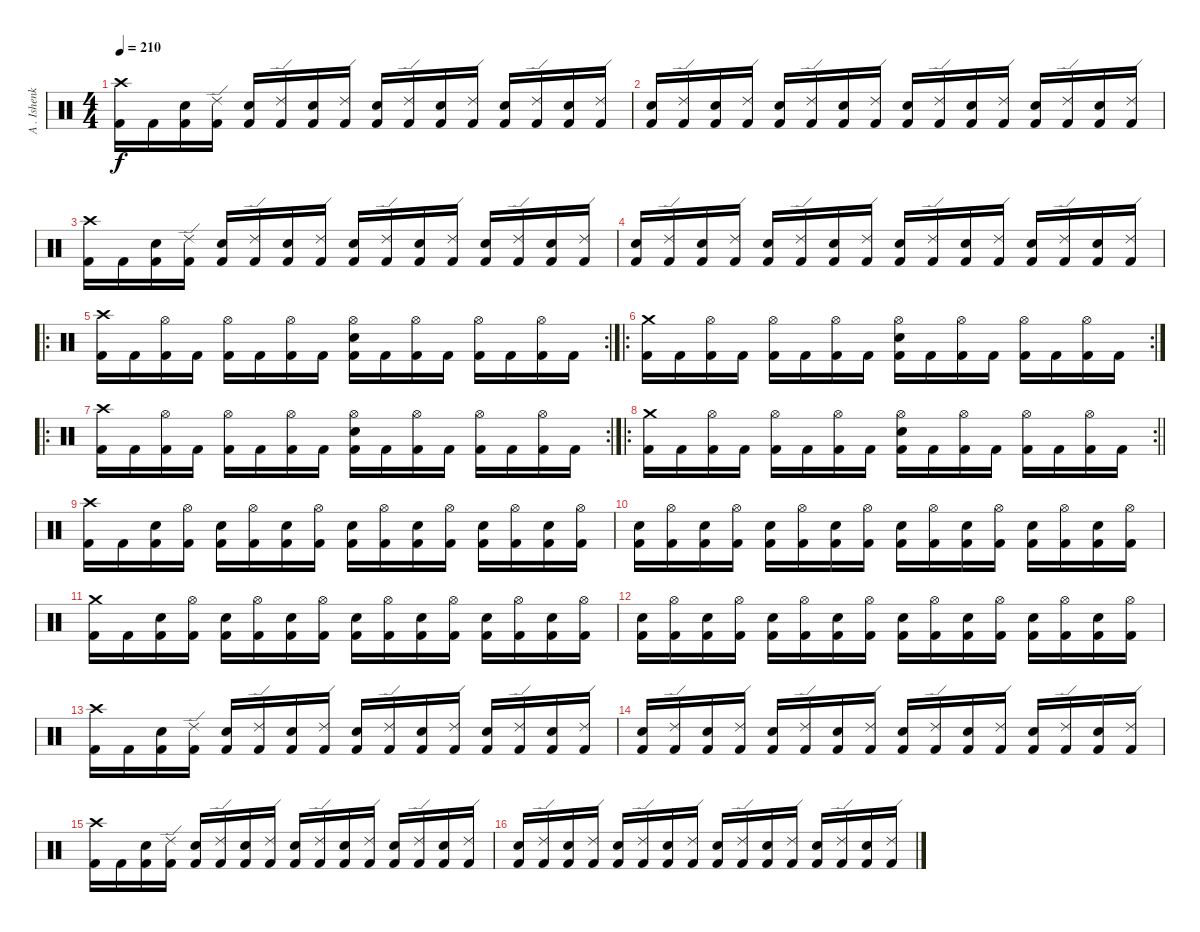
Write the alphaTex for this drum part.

\track ("A . Ishenko" "A . Ishenk") {instrument percussion}
\staff {score}
\articulation defaults
\ts (4 4)
\tempo 210
\clef neutral
\ks c
("Crash high (hit)" "Kick (hit) 2").16{dy f} "Kick (hit) 2".16 ("Electric Snare (hit)" "Kick (hit) 2").16 ("Ride (edge) 2" "Kick (hit) 2").16 ("Electric Snare (hit)" "Kick (hit) 2").16 ("Ride (edge) 2" "Kick (hit) 2").16 ("Electric Snare (hit)" "Kick (hit) 2").16 ("Ride (edge) 2" "Kick (hit) 2").16 ("Electric Snare (hit)" "Kick (hit) 2").16 ("Ride (edge) 2" "Kick (hit) 2").16 ("Electric Snare (hit)" "Kick (hit) 2").16 ("Ride (edge) 2" "Kick (hit) 2").16 ("Electric Snare (hit)" "Kick (hit) 2").16 ("Ride (edge) 2" "Kick (hit) 2").16 ("Electric Snare (hit)" "Kick (hit) 2").16 ("Ride (edge) 2" "Kick (hit) 2").16 |
("Electric Snare (hit)" "Kick (hit) 2").16 ("Ride (edge) 2" "Kick (hit) 2").16 ("Electric Snare (hit)" "Kick (hit) 2").16 ("Ride (edge) 2" "Kick (hit) 2").16 ("Electric Snare (hit)" "Kick (hit) 2").16 ("Ride (edge) 2" "Kick (hit) 2").16 ("Electric Snare (hit)" "Kick (hit) 2").16 ("Ride (edge) 2" "Kick (hit) 2").16 ("Electric Snare (hit)" "Kick (hit) 2").16 ("Ride (edge) 2" "Kick (hit) 2").16 ("Electric Snare (hit)" "Kick (hit) 2").16 ("Ride (edge) 2" "Kick (hit) 2").16 ("Electric Snare (hit)" "Kick (hit) 2").16 ("Ride (edge) 2" "Kick (hit) 2").16 ("Electric Snare (hit)" "Kick (hit) 2").16 ("Ride (edge) 2" "Kick (hit) 2").16 |
("Crash high (hit)" "Kick (hit) 2").16 "Kick (hit) 2".16 ("Electric Snare (hit)" "Kick (hit) 2").16 ("Ride (edge) 2" "Kick (hit) 2").16 ("Electric Snare (hit)" "Kick (hit) 2").16 ("Ride (edge) 2" "Kick (hit) 2").16 ("Electric Snare (hit)" "Kick (hit) 2").16 ("Ride (edge) 2" "Kick (hit) 2").16 ("Electric Snare (hit)" "Kick (hit) 2").16 ("Ride (edge) 2" "Kick (hit) 2").16 ("Electric Snare (hit)" "Kick (hit) 2").16 ("Ride (edge) 2" "Kick (hit) 2").16 ("Electric Snare (hit)" "Kick (hit) 2").16 ("Ride (edge) 2" "Kick (hit) 2").16 ("Electric Snare (hit)" "Kick (hit) 2").16 ("Ride (edge) 2" "Kick (hit) 2").16 |
("Electric Snare (hit)" "Kick (hit) 2").16 ("Ride (edge) 2" "Kick (hit) 2").16 ("Electric Snare (hit)" "Kick (hit) 2").16 ("Ride (edge) 2" "Kick (hit) 2").16 ("Electric Snare (hit)" "Kick (hit) 2").16 ("Ride (edge) 2" "Kick (hit) 2").16 ("Electric Snare (hit)" "Kick (hit) 2").16 ("Ride (edge) 2" "Kick (hit) 2").16 ("Electric Snare (hit)" "Kick (hit) 2").16 ("Ride (edge) 2" "Kick (hit) 2").16 ("Electric Snare (hit)" "Kick (hit) 2").16 ("Ride (edge) 2" "Kick (hit) 2").16 ("Electric Snare (hit)" "Kick (hit) 2").16 ("Ride (edge) 2" "Kick (hit) 2").16 ("Electric Snare (hit)" "Kick (hit) 2").16 ("Ride (edge) 2" "Kick (hit) 2").16 |
\ro
\rc 2
("Crash high (hit)" "Kick (hit) 2").16 "Kick (hit) 2".16 ("Hi-Hat (open)" "Kick (hit) 2").16 "Kick (hit) 2".16 ("Hi-Hat (open)" "Kick (hit) 2").16 "Kick (hit) 2".16 ("Hi-Hat (open)" "Kick (hit) 2").16 "Kick (hit) 2".16 ("Hi-Hat (open)" "Electric Snare (hit)" "Kick (hit) 2").16 "Kick (hit) 2".16 ("Hi-Hat (open)" "Kick (hit) 2").16 "Kick (hit) 2".16 ("Hi-Hat (open)" "Kick (hit) 2").16 "Kick (hit) 2".16 ("Hi-Hat (open)" "Kick (hit) 2").16 "Kick (hit) 2".16 |
\ro
\rc 2
("Crash medium (hit)" "Kick (hit) 2").16 "Kick (hit) 2".16 ("Hi-Hat (open)" "Kick (hit) 2").16 "Kick (hit) 2".16 ("Hi-Hat (open)" "Kick (hit) 2").16 "Kick (hit) 2".16 ("Hi-Hat (open)" "Kick (hit) 2").16 "Kick (hit) 2".16 ("Hi-Hat (open)" "Electric Snare (hit)" "Kick (hit) 2").16 "Kick (hit) 2".16 ("Hi-Hat (open)" "Kick (hit) 2").16 "Kick (hit) 2".16 ("Hi-Hat (open)" "Kick (hit) 2").16 "Kick (hit) 2".16 ("Hi-Hat (open)" "Kick (hit) 2").16 "Kick (hit) 2".16 |
\ro
\rc 2
("Crash high (hit)" "Kick (hit) 2").16 "Kick (hit) 2".16 ("Hi-Hat (open)" "Kick (hit) 2").16 "Kick (hit) 2".16 ("Hi-Hat (open)" "Kick (hit) 2").16 "Kick (hit) 2".16 ("Hi-Hat (open)" "Kick (hit) 2").16 "Kick (hit) 2".16 ("Hi-Hat (open)" "Electric Snare (hit)" "Kick (hit) 2").16 "Kick (hit) 2".16 ("Hi-Hat (open)" "Kick (hit) 2").16 "Kick (hit) 2".16 ("Hi-Hat (open)" "Kick (hit) 2").16 "Kick (hit) 2".16 ("Hi-Hat (open)" "Kick (hit) 2").16 "Kick (hit) 2".16 |
\ro
\rc 2
\barLineRight lightlight
("Crash medium (hit)" "Kick (hit) 2").16 "Kick (hit) 2".16 ("Hi-Hat (open)" "Kick (hit) 2").16 "Kick (hit) 2".16 ("Hi-Hat (open)" "Kick (hit) 2").16 "Kick (hit) 2".16 ("Hi-Hat (open)" "Kick (hit) 2").16 "Kick (hit) 2".16 ("Hi-Hat (open)" "Electric Snare (hit)" "Kick (hit) 2").16 "Kick (hit) 2".16 ("Hi-Hat (open)" "Kick (hit) 2").16 "Kick (hit) 2".16 ("Hi-Hat (open)" "Kick (hit) 2").16 "Kick (hit) 2".16 ("Hi-Hat (open)" "Kick (hit) 2").16 "Kick (hit) 2".16 |
("Crash high (hit)" "Kick (hit) 2").16 "Kick (hit) 2".16 ("Electric Snare (hit)" "Kick (hit) 2").16 ("Hi-Hat (open)" "Kick (hit) 2").16 ("Electric Snare (hit)" "Kick (hit) 2").16 ("Hi-Hat (open)" "Kick (hit) 2").16 ("Electric Snare (hit)" "Kick (hit) 2").16 ("Hi-Hat (open)" "Kick (hit) 2").16 ("Electric Snare (hit)" "Kick (hit) 2").16 ("Hi-Hat (open)" "Kick (hit) 2").16 ("Electric Snare (hit)" "Kick (hit) 2").16 ("Hi-Hat (open)" "Kick (hit) 2").16 ("Electric Snare (hit)" "Kick (hit) 2").16 ("Hi-Hat (open)" "Kick (hit) 2").16 ("Electric Snare (hit)" "Kick (hit) 2").16 ("Hi-Hat (open)" "Kick (hit) 2").16 |
("Electric Snare (hit)" "Kick (hit) 2").16 ("Hi-Hat (open)" "Kick (hit) 2").16 ("Electric Snare (hit)" "Kick (hit) 2").16 ("Hi-Hat (open)" "Kick (hit) 2").16 ("Electric Snare (hit)" "Kick (hit) 2").16 ("Hi-Hat (open)" "Kick (hit) 2").16 ("Electric Snare (hit)" "Kick (hit) 2").16 ("Hi-Hat (open)" "Kick (hit) 2").16 ("Electric Snare (hit)" "Kick (hit) 2").16 ("Hi-Hat (open)" "Kick (hit) 2").16 ("Electric Snare (hit)" "Kick (hit) 2").16 ("Hi-Hat (open)" "Kick (hit) 2").16 ("Electric Snare (hit)" "Kick (hit) 2").16 ("Hi-Hat (open)" "Kick (hit) 2").16 ("Electric Snare (hit)" "Kick (hit) 2").16 ("Hi-Hat (open)" "Kick (hit) 2").16 |
("Crash medium (hit)" "Kick (hit) 2").16 "Kick (hit) 2".16 ("Electric Snare (hit)" "Kick (hit) 2").16 ("Hi-Hat (open)" "Kick (hit) 2").16 ("Electric Snare (hit)" "Kick (hit) 2").16 ("Hi-Hat (open)" "Kick (hit) 2").16 ("Electric Snare (hit)" "Kick (hit) 2").16 ("Hi-Hat (open)" "Kick (hit) 2").16 ("Electric Snare (hit)" "Kick (hit) 2").16 ("Hi-Hat (open)" "Kick (hit) 2").16 ("Electric Snare (hit)" "Kick (hit) 2").16 ("Hi-Hat (open)" "Kick (hit) 2").16 ("Electric Snare (hit)" "Kick (hit) 2").16 ("Hi-Hat (open)" "Kick (hit) 2").16 ("Electric Snare (hit)" "Kick (hit) 2").16 ("Hi-Hat (open)" "Kick (hit) 2").16 |
("Electric Snare (hit)" "Kick (hit) 2").16 ("Hi-Hat (open)" "Kick (hit) 2").16 ("Electric Snare (hit)" "Kick (hit) 2").16 ("Hi-Hat (open)" "Kick (hit) 2").16 ("Electric Snare (hit)" "Kick (hit) 2").16 ("Hi-Hat (open)" "Kick (hit) 2").16 ("Electric Snare (hit)" "Kick (hit) 2").16 ("Hi-Hat (open)" "Kick (hit) 2").16 ("Electric Snare (hit)" "Kick (hit) 2").16 ("Hi-Hat (open)" "Kick (hit) 2").16 ("Electric Snare (hit)" "Kick (hit) 2").16 ("Hi-Hat (open)" "Kick (hit) 2").16 ("Electric Snare (hit)" "Kick (hit) 2").16 ("Hi-Hat (open)" "Kick (hit) 2").16 ("Electric Snare (hit)" "Kick (hit) 2").16 ("Hi-Hat (open)" "Kick (hit) 2").16 |
("Crash high (hit)" "Kick (hit) 2").16 "Kick (hit) 2".16 ("Electric Snare (hit)" "Kick (hit) 2").16 ("Ride (edge) 2" "Kick (hit) 2").16 ("Electric Snare (hit)" "Kick (hit) 2").16 ("Ride (edge) 2" "Kick (hit) 2").16 ("Electric Snare (hit)" "Kick (hit) 2").16 ("Ride (edge) 2" "Kick (hit) 2").16 ("Electric Snare (hit)" "Kick (hit) 2").16 ("Ride (edge) 2" "Kick (hit) 2").16 ("Electric Snare (hit)" "Kick (hit) 2").16 ("Ride (edge) 2" "Kick (hit) 2").16 ("Electric Snare (hit)" "Kick (hit) 2").16 ("Ride (edge) 2" "Kick (hit) 2").16 ("Electric Snare (hit)" "Kick (hit) 2").16 ("Ride (edge) 2" "Kick (hit) 2").16 |
("Electric Snare (hit)" "Kick (hit) 2").16 ("Ride (edge) 2" "Kick (hit) 2").16 ("Electric Snare (hit)" "Kick (hit) 2").16 ("Ride (edge) 2" "Kick (hit) 2").16 ("Electric Snare (hit)" "Kick (hit) 2").16 ("Ride (edge) 2" "Kick (hit) 2").16 ("Electric Snare (hit)" "Kick (hit) 2").16 ("Ride (edge) 2" "Kick (hit) 2").16 ("Electric Snare (hit)" "Kick (hit) 2").16 ("Ride (edge) 2" "Kick (hit) 2").16 ("Electric Snare (hit)" "Kick (hit) 2").16 ("Ride (edge) 2" "Kick (hit) 2").16 ("Electric Snare (hit)" "Kick (hit) 2").16 ("Ride (edge) 2" "Kick (hit) 2").16 ("Electric Snare (hit)" "Kick (hit) 2").16 ("Ride (edge) 2" "Kick (hit) 2").16 |
("Crash high (hit)" "Kick (hit) 2").16 "Kick (hit) 2".16 ("Electric Snare (hit)" "Kick (hit) 2").16 ("Ride (edge) 2" "Kick (hit) 2").16 ("Electric Snare (hit)" "Kick (hit) 2").16 ("Ride (edge) 2" "Kick (hit) 2").16 ("Electric Snare (hit)" "Kick (hit) 2").16 ("Ride (edge) 2" "Kick (hit) 2").16 ("Electric Snare (hit)" "Kick (hit) 2").16 ("Ride (edge) 2" "Kick (hit) 2").16 ("Electric Snare (hit)" "Kick (hit) 2").16 ("Ride (edge) 2" "Kick (hit) 2").16 ("Electric Snare (hit)" "Kick (hit) 2").16 ("Ride (edge) 2" "Kick (hit) 2").16 ("Electric Snare (hit)" "Kick (hit) 2").16 ("Ride (edge) 2" "Kick (hit) 2").16 |
("Electric Snare (hit)" "Kick (hit) 2").16 ("Ride (edge) 2" "Kick (hit) 2").16 ("Electric Snare (hit)" "Kick (hit) 2").16 ("Ride (edge) 2" "Kick (hit) 2").16 ("Electric Snare (hit)" "Kick (hit) 2").16 ("Ride (edge) 2" "Kick (hit) 2").16 ("Electric Snare (hit)" "Kick (hit) 2").16 ("Ride (edge) 2" "Kick (hit) 2").16 ("Electric Snare (hit)" "Kick (hit) 2").16 ("Ride (edge) 2" "Kick (hit) 2").16 ("Electric Snare (hit)" "Kick (hit) 2").16 ("Ride (edge) 2" "Kick (hit) 2").16 ("Electric Snare (hit)" "Kick (hit) 2").16 ("Ride (edge) 2" "Kick (hit) 2").16 ("Electric Snare (hit)" "Kick (hit) 2").16 ("Ride (edge) 2" "Kick (hit) 2").16
